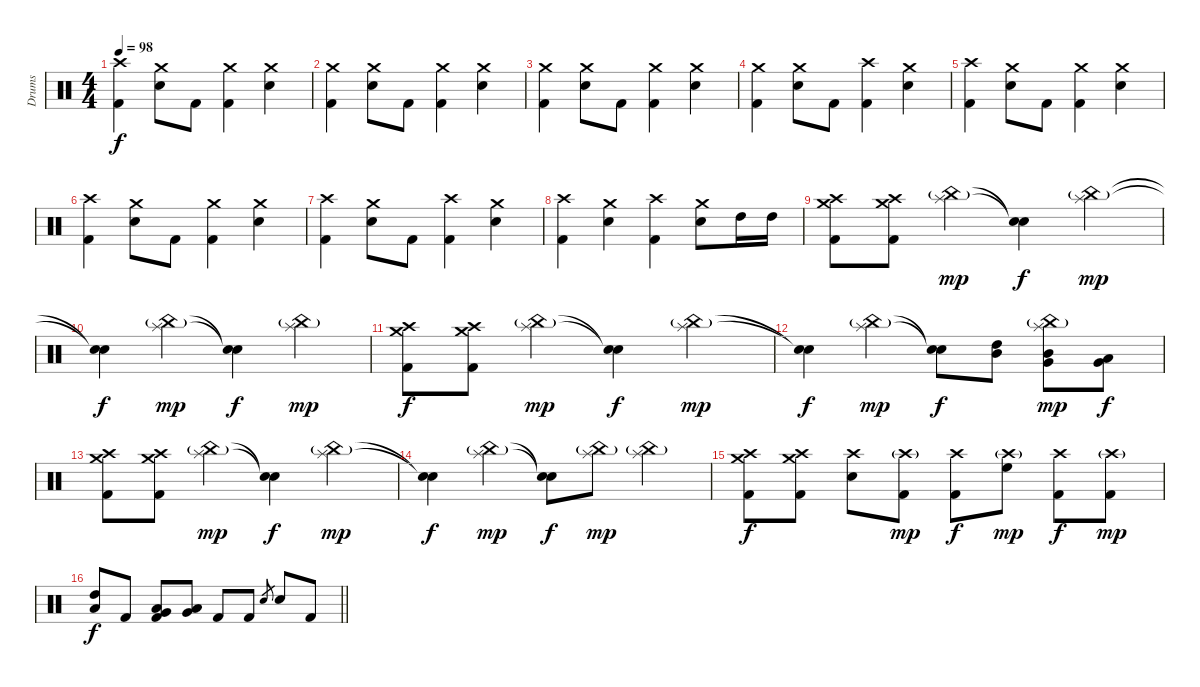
\track ("Drums" "Drums") {instrument percussion}
\staff {score}
\articulation defaults
\ts (4 4)
\tempo 98
\clef neutral
\ks c
("Crash high (hit)" "Kick (hit) 2").4{dy f} ("Crash medium (hit)" "Electric Snare (hit)").8 "Kick (hit) 2".8 ("Crash medium (hit)" "Kick (hit) 2").4 ("Crash medium (hit)" "Electric Snare (hit)").4 |
("Crash medium (hit)" "Kick (hit) 2").4 ("Crash medium (hit)" "Electric Snare (hit)").8 "Kick (hit) 2".8 ("Crash medium (hit)" "Kick (hit) 2").4 ("Crash medium (hit)" "Electric Snare (hit)").4 |
("Crash medium (hit)" "Kick (hit) 2").4 ("Crash medium (hit)" "Electric Snare (hit)").8 "Kick (hit) 2".8 ("Crash medium (hit)" "Kick (hit) 2").4 ("Crash medium (hit)" "Electric Snare (hit)").4 |
("Crash medium (hit)" "Kick (hit) 2").4 ("Crash medium (hit)" "Electric Snare (hit)").8 "Kick (hit) 2".8 ("Crash high (hit)" "Kick (hit) 2").4 ("Crash medium (hit)" "Electric Snare (hit)").4 |
("Crash high (hit)" "Kick (hit) 2").4 ("Crash medium (hit)" "Electric Snare (hit)").8 "Kick (hit) 2".8 ("Crash medium (hit)" "Kick (hit) 2").4 ("Crash medium (hit)" "Electric Snare (hit)").4 |
("Crash high (hit)" "Kick (hit) 2").4 ("Crash medium (hit)" "Electric Snare (hit)").8 "Kick (hit) 2".8 ("Crash medium (hit)" "Kick (hit) 2").4 ("Crash medium (hit)" "Electric Snare (hit)").4 |
("Crash high (hit)" "Kick (hit) 2").4 ("Crash medium (hit)" "Electric Snare (hit)").8 "Kick (hit) 2".8 ("Crash high (hit)" "Kick (hit) 2").4 ("Crash medium (hit)" "Electric Snare (hit)").4 |
("Crash high (hit)" "Kick (hit) 2").4 ("Crash medium (hit)" "Electric Snare (hit)").4 ("Crash high (hit)" "Kick (hit) 2").4 ("Crash medium (hit)" "Electric Snare (hit)").8 "High Tom (hit)".16 "High Tom (hit)".16 |
("Crash high (hit)" "Crash medium (hit)" "Kick (hit) 2").8 ("Crash high (hit)" "Crash medium (hit)" "Kick (hit) 2").8 ("China (hit)"{g} "Splash (hit)").4{dy mp} ("Snare (hit)"{t} "Snare (hit)"{t}).4{dy f} ("China (hit)"{g} "Splash (hit)").4{dy mp} |
("Snare (hit)"{t} "Snare (hit)"{t}).4{dy f} ("China (hit)"{g} "Splash (hit)").4{dy mp} ("Snare (hit)"{t} "Snare (hit)"{t}).4{dy f} ("China (hit)"{g} "Splash (hit)").4{dy mp} |
("Crash high (hit)" "Crash medium (hit)" "Kick (hit) 2").8{dy f} ("Crash high (hit)" "Crash medium (hit)" "Kick (hit) 2").8 ("China (hit)"{g} "Splash (hit)").4{dy mp} ("Snare (hit)"{t} "Snare (hit)"{t}).4{dy f} ("China (hit)"{g} "Splash (hit)").4{dy mp} |
("Snare (hit)"{t} "Snare (hit)"{t}).4{dy f} ("China (hit)"{g} "Splash (hit)").4{dy mp} ("Snare (hit)"{t} "Snare (hit)"{t}).8{dy f} ("High Tom (hit)" "Mid Tom (hit)").8 ("China (hit)"{g} "Splash (hit)" "Mid Tom (hit)" "Very Low Tom (hit)").8{dy mp} ("Low Tom (hit)" "Very Low Tom (hit)").8{dy f} |
("Crash high (hit)" "Crash medium (hit)" "Kick (hit) 2").8 ("Crash high (hit)" "Crash medium (hit)" "Kick (hit) 2").8 ("China (hit)"{g} "Splash (hit)").4{dy mp} ("Snare (hit)"{t} "Snare (hit)"{t}).4{dy f} ("China (hit)"{g} "Splash (hit)").4{dy mp} |
("Snare (hit)"{t} "Snare (hit)"{t}).4{dy f} ("China (hit)"{g} "Splash (hit)").4{dy mp} ("Snare (hit)"{t} "Snare (hit)"{t}).8{dy f} ("China (hit)"{g} "Splash (hit)").8{dy mp} ("China (hit)"{g} "Splash (hit)").4 |
("Crash high (hit)" "Crash medium (hit)" "Kick (hit) 2").8{dy f} ("Crash high (hit)" "Crash medium (hit)" "Kick (hit) 2").8 ("Crash high (hit)" "Electric Snare (hit)").8 ("Crash high (hit)"{g} "Kick (hit) 2").8{dy mp} ("Crash high (hit)" "Kick (hit) 2").8{dy f} ("Crash high (hit)"{g} "High Floor Tom (hit)").8{dy mp} ("Crash high (hit)" "Kick (hit) 2").8{dy f} ("Crash high (hit)"{g} "Kick (hit) 2").8{dy mp} |
\barLineRight lightlight
("High Tom (hit)" "Low Tom (hit)").8{dy f} "Kick (hit) 2".8 ("Very Low Tom (hit)" "Low Floor Tom (hit)" "Kick (hit) 2").8 ("Low Tom (hit)" "Very Low Tom (hit)").8 "Kick (hit) 2".8 "Kick (hit) 2".8 "Electric Snare (hit)".8{gr} "Electric Snare (hit)".8 "Kick (hit) 2".8
